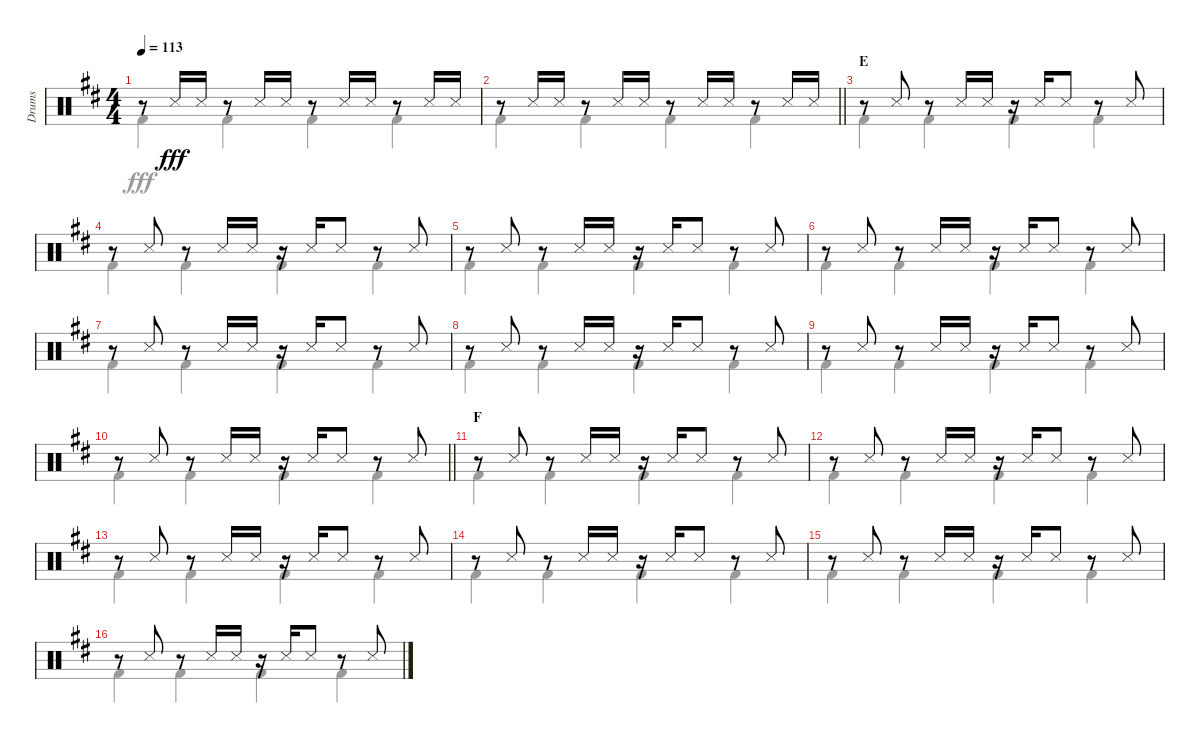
\track ("Drums" "Drums") {instrument percussion}
\staff {score}
\articulation defaults
\voice
\ts (4 4)
\tempo 113
\clef neutral
\ks d
r.8{dy fff} "Snare (side stick) 3".16 "Snare (side stick) 3".16 r.8 "Snare (side stick) 3".16 "Snare (side stick) 3".16 r.8 "Snare (side stick) 3".16 "Snare (side stick) 3".16 r.8 "Snare (side stick) 3".16 "Snare (side stick) 3".16 |
\barLineRight lightlight
r.8 "Snare (side stick) 3".16 "Snare (side stick) 3".16 r.8 "Snare (side stick) 3".16 "Snare (side stick) 3".16 r.8 "Snare (side stick) 3".16 "Snare (side stick) 3".16 r.8 "Snare (side stick) 3".16 "Snare (side stick) 3".16 |
\section ("" "E")
r.8 "Snare (side stick) 3".8 r.8 "Snare (side stick) 3".16 "Snare (side stick) 3".16 r.16 "Snare (side stick) 3".16 "Snare (side stick) 3".8 r.8 "Snare (side stick) 3".8 |
r.8 "Snare (side stick) 3".8 r.8 "Snare (side stick) 3".16 "Snare (side stick) 3".16 r.16 "Snare (side stick) 3".16 "Snare (side stick) 3".8 r.8 "Snare (side stick) 3".8 |
r.8 "Snare (side stick) 3".8 r.8 "Snare (side stick) 3".16 "Snare (side stick) 3".16 r.16 "Snare (side stick) 3".16 "Snare (side stick) 3".8 r.8 "Snare (side stick) 3".8 |
r.8 "Snare (side stick) 3".8 r.8 "Snare (side stick) 3".16 "Snare (side stick) 3".16 r.16 "Snare (side stick) 3".16 "Snare (side stick) 3".8 r.8 "Snare (side stick) 3".8 |
r.8 "Snare (side stick) 3".8 r.8 "Snare (side stick) 3".16 "Snare (side stick) 3".16 r.16 "Snare (side stick) 3".16 "Snare (side stick) 3".8 r.8 "Snare (side stick) 3".8 |
r.8 "Snare (side stick) 3".8 r.8 "Snare (side stick) 3".16 "Snare (side stick) 3".16 r.16 "Snare (side stick) 3".16 "Snare (side stick) 3".8 r.8 "Snare (side stick) 3".8 |
r.8 "Snare (side stick) 3".8 r.8 "Snare (side stick) 3".16 "Snare (side stick) 3".16 r.16 "Snare (side stick) 3".16 "Snare (side stick) 3".8 r.8 "Snare (side stick) 3".8 |
\barLineRight lightlight
r.8 "Snare (side stick) 3".8 r.8 "Snare (side stick) 3".16 "Snare (side stick) 3".16 r.16 "Snare (side stick) 3".16 "Snare (side stick) 3".8 r.8 "Snare (side stick) 3".8 |
\section ("" "F")
r.8 "Snare (side stick) 3".8 r.8 "Snare (side stick) 3".16 "Snare (side stick) 3".16 r.16 "Snare (side stick) 3".16 "Snare (side stick) 3".8 r.8 "Snare (side stick) 3".8 |
r.8 "Snare (side stick) 3".8 r.8 "Snare (side stick) 3".16 "Snare (side stick) 3".16 r.16 "Snare (side stick) 3".16 "Snare (side stick) 3".8 r.8 "Snare (side stick) 3".8 |
r.8 "Snare (side stick) 3".8 r.8 "Snare (side stick) 3".16 "Snare (side stick) 3".16 r.16 "Snare (side stick) 3".16 "Snare (side stick) 3".8 r.8 "Snare (side stick) 3".8 |
r.8 "Snare (side stick) 3".8 r.8 "Snare (side stick) 3".16 "Snare (side stick) 3".16 r.16 "Snare (side stick) 3".16 "Snare (side stick) 3".8 r.8 "Snare (side stick) 3".8 |
r.8 "Snare (side stick) 3".8 r.8 "Snare (side stick) 3".16 "Snare (side stick) 3".16 r.16 "Snare (side stick) 3".16 "Snare (side stick) 3".8 r.8 "Snare (side stick) 3".8 |
r.8 "Snare (side stick) 3".8 r.8 "Snare (side stick) 3".16 "Snare (side stick) 3".16 r.16 "Snare (side stick) 3".16 "Snare (side stick) 3".8 r.8 "Snare (side stick) 3".8
\voice
\clef neutral
\ottava regular
\simile none
\ks d "Kick (hit) 2".4{dy fff} "Kick (hit) 2".4 "Kick (hit) 2".4 "Kick (hit) 2".4
|
\barLineRight lightlight "Kick (hit) 2".4 "Kick (hit) 2".4 "Kick (hit) 2".4 "Kick (hit) 2".4
|
"Kick (hit) 2".4 "Kick (hit) 2".4 "Kick (hit) 2".4 "Kick (hit) 2".4 |
"Kick (hit) 2".4 "Kick (hit) 2".4 "Kick (hit) 2".4 "Kick (hit) 2".4 |
"Kick (hit) 2".4 "Kick (hit) 2".4 "Kick (hit) 2".4 "Kick (hit) 2".4 |
"Kick (hit) 2".4 "Kick (hit) 2".4 "Kick (hit) 2".4 "Kick (hit) 2".4 |
"Kick (hit) 2".4 "Kick (hit) 2".4 "Kick (hit) 2".4 "Kick (hit) 2".4 |
"Kick (hit) 2".4 "Kick (hit) 2".4 "Kick (hit) 2".4 "Kick (hit) 2".4 |
"Kick (hit) 2".4 "Kick (hit) 2".4 "Kick (hit) 2".4 "Kick (hit) 2".4 |
\barLineRight lightlight "Kick (hit) 2".4 "Kick (hit) 2".4 "Kick (hit) 2".4 "Kick (hit) 2".4
|
"Kick (hit) 2".4 "Kick (hit) 2".4 "Kick (hit) 2".4 "Kick (hit) 2".4 |
"Kick (hit) 2".4 "Kick (hit) 2".4 "Kick (hit) 2".4 "Kick (hit) 2".4 |
"Kick (hit) 2".4 "Kick (hit) 2".4 "Kick (hit) 2".4 "Kick (hit) 2".4 |
"Kick (hit) 2".4 "Kick (hit) 2".4 "Kick (hit) 2".4 "Kick (hit) 2".4 |
"Kick (hit) 2".4 "Kick (hit) 2".4 "Kick (hit) 2".4 "Kick (hit) 2".4 |
"Kick (hit) 2".4 "Kick (hit) 2".4 "Kick (hit) 2".4 "Kick (hit) 2".4
